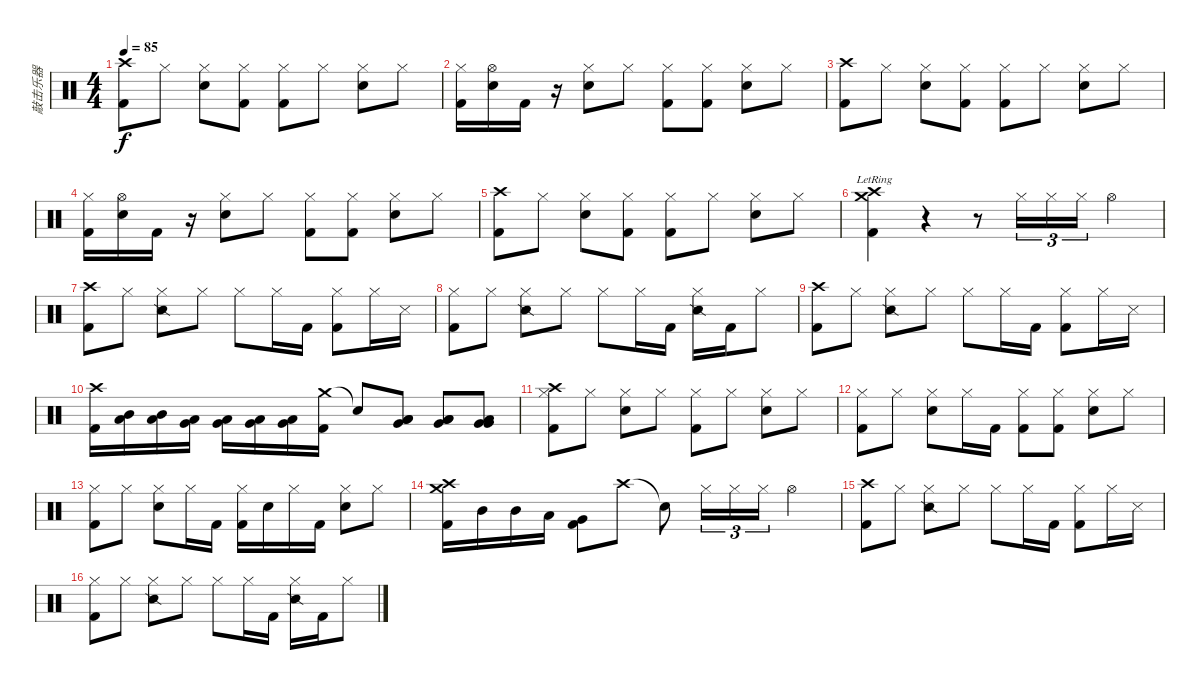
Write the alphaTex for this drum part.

\track ("敲击乐器" "敲击乐器") {instrument percussion}
\staff {score}
\articulation defaults
\ts (4 4)
\tempo 85
\clef neutral
\ks c
("Crash high (hit)" "Kick (hit) 2").8{dy f} "Hi-Hat (closed)".8 ("Snare (hit) 2" "Hi-Hat (closed)").8 ("Hi-Hat (closed)" "Kick (hit) 2").8 ("Hi-Hat (closed)" "Kick (hit) 2").8 "Hi-Hat (closed)".8 ("Snare (hit) 2" "Hi-Hat (closed)").8 "Hi-Hat (closed)".8 |
("Hi-Hat (closed)" "Kick (hit) 2").16 ("Snare (hit) 2" "Hi-Hat (open)").16 "Kick (hit) 2".16 r.16 ("Hi-Hat (closed)" "Snare (hit) 2").8 "Hi-Hat (closed)".8 ("Hi-Hat (closed)" "Kick (hit) 2").8 ("Hi-Hat (closed)" "Kick (hit) 2").8 ("Snare (hit) 2" "Hi-Hat (closed)").8 "Hi-Hat (closed)".8 |
("Crash high (hit)" "Kick (hit) 2").8 "Hi-Hat (closed)".8 ("Snare (hit) 2" "Hi-Hat (closed)").8 ("Hi-Hat (closed)" "Kick (hit) 2").8 ("Hi-Hat (closed)" "Kick (hit) 2").8 "Hi-Hat (closed)".8 ("Snare (hit) 2" "Hi-Hat (closed)").8 "Hi-Hat (closed)".8 |
("Hi-Hat (closed)" "Kick (hit) 2").16 ("Snare (hit) 2" "Hi-Hat (open)").16 "Kick (hit) 2".16 r.16 ("Hi-Hat (closed)" "Snare (hit) 2").8 "Hi-Hat (closed)".8 ("Hi-Hat (closed)" "Kick (hit) 2").8 ("Hi-Hat (closed)" "Kick (hit) 2").8 ("Snare (hit) 2" "Hi-Hat (closed)").8 "Hi-Hat (closed)".8 |
("Crash high (hit)" "Kick (hit) 2").8 "Hi-Hat (closed)".8 ("Snare (hit) 2" "Hi-Hat (closed)").8 ("Hi-Hat (closed)" "Kick (hit) 2").8 ("Hi-Hat (closed)" "Kick (hit) 2").8 "Hi-Hat (closed)".8 ("Snare (hit) 2" "Hi-Hat (closed)").8 "Hi-Hat (closed)".8 |
("Crash medium (hit)"{lr} "Crash high (hit)"{lr} "Kick (hit) 2").4 r.4 r.8 "Hi-Hat (closed)".16{tu (3 2)} "Hi-Hat (closed)".16{tu (3 2)} "Hi-Hat (closed)".16{tu (3 2)} "Hi-Hat (open)".4 |
("Crash high (hit)" "Kick (hit) 2").8 "Hi-Hat (closed)".8 ("Snare (side stick) 2" "Hi-Hat (closed)").8 "Hi-Hat (closed)".8 "Hi-Hat (closed)".8 "Hi-Hat (closed)".16 "Kick (hit) 2".16 ("Hi-Hat (closed)" "Kick (hit) 2").8 "Hi-Hat (closed)".16 "Snare (side stick) 3".16 |
("Hi-Hat (closed)" "Kick (hit) 2").8 "Hi-Hat (closed)".8 ("Snare (side stick) 2" "Hi-Hat (closed)").8 "Hi-Hat (closed)".8 "Hi-Hat (closed)".8 "Hi-Hat (closed)".16 "Kick (hit) 2".16 ("Snare (side stick) 2" "Hi-Hat (closed)").16 "Kick (hit) 2".16 "Hi-Hat (closed)".8 |
("Crash high (hit)" "Kick (hit) 2").8 "Hi-Hat (closed)".8 ("Snare (side stick) 2" "Hi-Hat (closed)").8 "Hi-Hat (closed)".8 "Hi-Hat (closed)".8 "Hi-Hat (closed)".16 "Kick (hit) 2".16 ("Hi-Hat (closed)" "Kick (hit) 2").8 "Hi-Hat (closed)".16 "Snare (side stick) 3".16 |
("Crash high (hit)" "Kick (hit) 2").16 ("Mid Tom (hit)" "Low Tom (hit)").16 ("Mid Tom (hit)" "Low Tom (hit)").16 ("Low Tom (hit)" "Very Low Tom (hit)").16 ("Low Tom (hit)" "Very Low Tom (hit)").16 ("Low Tom (hit)" "Very Low Tom (hit)").16 ("Very Low Tom (hit)" "Low Floor Tom (hit)").16 ("Crash medium (hit)" "Kick (hit) 2").16 "Snare (hit)"{t}.8 ("Very Low Tom (hit)" "Low Tom (hit)" "Low Tom (hit)").8 ("Very Low Tom (hit)" "Low Tom (hit)" "Low Tom (hit)").8 ("Low Floor Tom (hit)" "Very Low Tom (hit)" "Very Low Tom (hit)").8 |
("Crash high (hit)" "Hi-Hat (closed)" "Kick (hit) 2").8 "Hi-Hat (closed)".8 ("Electric Snare (hit)" "Hi-Hat (closed)").8 "Hi-Hat (closed)".8 ("Hi-Hat (closed)" "Kick (hit) 2").8 "Hi-Hat (closed)".8 ("Electric Snare (hit)" "Hi-Hat (closed)").8 "Hi-Hat (closed)".8 |
("Hi-Hat (closed)" "Kick (hit) 2").8 "Hi-Hat (closed)".8 ("Electric Snare (hit)" "Hi-Hat (closed)").8 "Hi-Hat (closed)".16 "Kick (hit) 2".16 ("Hi-Hat (closed)" "Kick (hit) 2").8 ("Hi-Hat (closed)" "Kick (hit) 2").8 ("Snare (hit) 2" "Hi-Hat (closed)").8 "Hi-Hat (closed)".8 |
("Hi-Hat (closed)" "Kick (hit) 2").8 "Hi-Hat (closed)".8 ("Electric Snare (hit)" "Hi-Hat (closed)").8 "Hi-Hat (closed)".16 "Kick (hit) 2".16 ("Hi-Hat (closed)" "Kick (hit) 2").16 "Snare (hit) 2".16 "Hi-Hat (closed)".16 "Kick (hit) 2".16 ("Snare (hit) 2" "Hi-Hat (closed)").8 "Hi-Hat (closed)".8 |
("Crash high (hit)" "Crash medium (hit)" "Kick (hit) 2").16 "Mid Tom (hit)".16 "Mid Tom (hit)".16 "Low Tom (hit)".16 ("Very Low Tom (hit)" "Kick (hit) 2").8 "Crash high (hit)".8 "Snare (hit)"{t}.8 "Hi-Hat (closed)".16{tu (3 2)} "Hi-Hat (closed)".16{tu (3 2)} "Hi-Hat (closed)".16{tu (3 2)} "Hi-Hat (open)".4 |
("Crash high (hit)" "Kick (hit) 2").8 "Hi-Hat (closed)".8 ("Snare (side stick) 2" "Hi-Hat (closed)").8 "Hi-Hat (closed)".8 "Hi-Hat (closed)".8 "Hi-Hat (closed)".16 "Kick (hit) 2".16 ("Hi-Hat (closed)" "Kick (hit) 2").8 "Hi-Hat (closed)".16 "Snare (side stick) 3".16 |
("Hi-Hat (closed)" "Kick (hit) 2").8 "Hi-Hat (closed)".8 ("Snare (side stick) 2" "Hi-Hat (closed)").8 "Hi-Hat (closed)".8 "Hi-Hat (closed)".8 "Hi-Hat (closed)".16 "Kick (hit) 2".16 ("Snare (side stick) 2" "Hi-Hat (closed)").16 "Kick (hit) 2".16 "Hi-Hat (closed)".8
